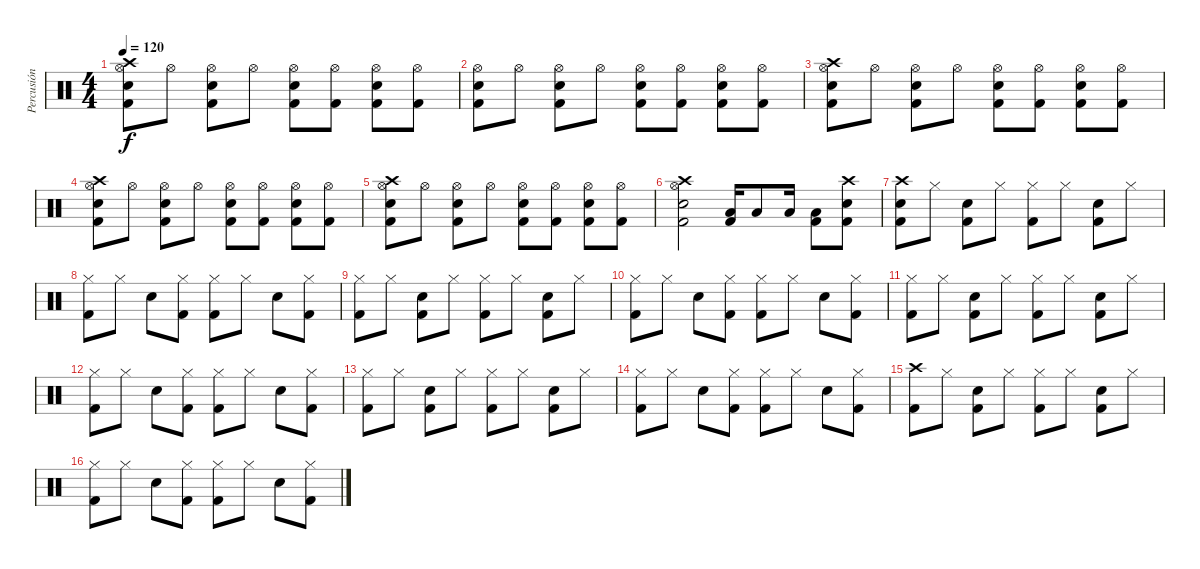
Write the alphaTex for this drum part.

\track ("Percusión" "Percusión") {instrument percussion}
\staff {score}
\articulation defaults
\ts (4 4)
\tempo 120
\clef neutral
\ks c
("Crash high (hit)" "Hi-Hat (open)" "Electric Snare (hit)" "Kick (hit) 2").8{dy f} "Hi-Hat (open)".8 ("Hi-Hat (open)" "Electric Snare (hit)" "Kick (hit) 2").8 "Hi-Hat (open)".8 ("Hi-Hat (open)" "Electric Snare (hit)" "Kick (hit) 2").8 ("Hi-Hat (open)" "Kick (hit) 2").8 ("Hi-Hat (open)" "Electric Snare (hit)" "Kick (hit) 2").8 ("Hi-Hat (open)" "Kick (hit) 2").8 |
("Hi-Hat (open)" "Electric Snare (hit)" "Kick (hit) 2").8 "Hi-Hat (open)".8 ("Hi-Hat (open)" "Electric Snare (hit)" "Kick (hit) 2").8 "Hi-Hat (open)".8 ("Hi-Hat (open)" "Electric Snare (hit)" "Kick (hit) 2").8 ("Hi-Hat (open)" "Kick (hit) 2").8 ("Hi-Hat (open)" "Electric Snare (hit)" "Kick (hit) 2").8 ("Hi-Hat (open)" "Kick (hit) 2").8 |
("Crash high (hit)" "Hi-Hat (open)" "Electric Snare (hit)" "Kick (hit) 2").8 "Hi-Hat (open)".8 ("Hi-Hat (open)" "Electric Snare (hit)" "Kick (hit) 2").8 "Hi-Hat (open)".8 ("Hi-Hat (open)" "Electric Snare (hit)" "Kick (hit) 2").8 ("Hi-Hat (open)" "Kick (hit) 2").8 ("Hi-Hat (open)" "Electric Snare (hit)" "Kick (hit) 2").8 ("Hi-Hat (open)" "Kick (hit) 2").8 |
("Crash high (hit)" "Hi-Hat (open)" "Electric Snare (hit)" "Kick (hit) 2").8 "Hi-Hat (open)".8 ("Hi-Hat (open)" "Electric Snare (hit)" "Kick (hit) 2").8 "Hi-Hat (open)".8 ("Hi-Hat (open)" "Electric Snare (hit)" "Kick (hit) 2").8 ("Hi-Hat (open)" "Kick (hit) 2").8 ("Hi-Hat (open)" "Electric Snare (hit)" "Kick (hit) 2").8 ("Hi-Hat (open)" "Kick (hit) 2").8 |
("Crash high (hit)" "Hi-Hat (open)" "Electric Snare (hit)" "Kick (hit) 2").8 "Hi-Hat (open)".8 ("Hi-Hat (open)" "Electric Snare (hit)" "Kick (hit) 2").8 "Hi-Hat (open)".8 ("Hi-Hat (open)" "Electric Snare (hit)" "Kick (hit) 2").8 ("Hi-Hat (open)" "Kick (hit) 2").8 ("Hi-Hat (open)" "Electric Snare (hit)" "Kick (hit) 2").8 ("Hi-Hat (open)" "Kick (hit) 2").8 |
("Crash high (hit)" "Hi-Hat (open)" "Electric Snare (hit)" "Kick (hit) 2").2 ("Low Floor Tom (hit)" "Kick (hit) 2").16 "Low Floor Tom (hit)".8 "Low Floor Tom (hit)".16 ("Low Floor Tom (hit)" "Kick (hit) 2").8 ("Crash high (hit)" "Electric Snare (hit)" "Kick (hit) 2").8 |
("Crash high (hit)" "Electric Snare (hit)" "Kick (hit) 2").8 "Hi-Hat (closed)".8 ("Electric Snare (hit)" "Kick (hit) 2").8 "Hi-Hat (closed)".8 ("Hi-Hat (closed)" "Kick (hit) 2").8 "Hi-Hat (closed)".8 ("Electric Snare (hit)" "Kick (hit) 2").8 "Hi-Hat (closed)".8 |
("Hi-Hat (closed)" "Kick (hit) 2").8 "Hi-Hat (closed)".8 "Electric Snare (hit)".8 ("Hi-Hat (closed)" "Kick (hit) 2").8 ("Hi-Hat (closed)" "Kick (hit) 2").8 "Hi-Hat (closed)".8 "Electric Snare (hit)".8 ("Hi-Hat (closed)" "Kick (hit) 2").8 |
("Hi-Hat (closed)" "Kick (hit) 2").8 "Hi-Hat (closed)".8 ("Electric Snare (hit)" "Kick (hit) 2").8 "Hi-Hat (closed)".8 ("Hi-Hat (closed)" "Kick (hit) 2").8 "Hi-Hat (closed)".8 ("Electric Snare (hit)" "Kick (hit) 2").8 "Hi-Hat (closed)".8 |
("Hi-Hat (closed)" "Kick (hit) 2").8 "Hi-Hat (closed)".8 "Electric Snare (hit)".8 ("Hi-Hat (closed)" "Kick (hit) 2").8 ("Hi-Hat (closed)" "Kick (hit) 2").8 "Hi-Hat (closed)".8 "Electric Snare (hit)".8 ("Hi-Hat (closed)" "Kick (hit) 2").8 |
("Hi-Hat (closed)" "Kick (hit) 2").8 "Hi-Hat (closed)".8 ("Electric Snare (hit)" "Kick (hit) 2").8 "Hi-Hat (closed)".8 ("Hi-Hat (closed)" "Kick (hit) 2").8 "Hi-Hat (closed)".8 ("Electric Snare (hit)" "Kick (hit) 2").8 "Hi-Hat (closed)".8 |
("Hi-Hat (closed)" "Kick (hit) 2").8 "Hi-Hat (closed)".8 "Electric Snare (hit)".8 ("Hi-Hat (closed)" "Kick (hit) 2").8 ("Hi-Hat (closed)" "Kick (hit) 2").8 "Hi-Hat (closed)".8 "Electric Snare (hit)".8 ("Hi-Hat (closed)" "Kick (hit) 2").8 |
("Hi-Hat (closed)" "Kick (hit) 2").8 "Hi-Hat (closed)".8 ("Electric Snare (hit)" "Kick (hit) 2").8 "Hi-Hat (closed)".8 ("Hi-Hat (closed)" "Kick (hit) 2").8 "Hi-Hat (closed)".8 ("Electric Snare (hit)" "Kick (hit) 2").8 "Hi-Hat (closed)".8 |
("Hi-Hat (closed)" "Kick (hit) 2").8 "Hi-Hat (closed)".8 "Electric Snare (hit)".8 ("Hi-Hat (closed)" "Kick (hit) 2").8 ("Hi-Hat (closed)" "Kick (hit) 2").8 "Hi-Hat (closed)".8 "Electric Snare (hit)".8 ("Hi-Hat (closed)" "Kick (hit) 2").8 |
("Crash high (hit)" "Kick (hit) 2").8 "Hi-Hat (closed)".8 ("Electric Snare (hit)" "Kick (hit) 2").8 "Hi-Hat (closed)".8 ("Hi-Hat (closed)" "Kick (hit) 2").8 "Hi-Hat (closed)".8 ("Electric Snare (hit)" "Kick (hit) 2").8 "Hi-Hat (closed)".8 |
("Hi-Hat (closed)" "Kick (hit) 2").8 "Hi-Hat (closed)".8 "Electric Snare (hit)".8 ("Hi-Hat (closed)" "Kick (hit) 2").8 ("Hi-Hat (closed)" "Kick (hit) 2").8 "Hi-Hat (closed)".8 "Electric Snare (hit)".8 ("Hi-Hat (closed)" "Kick (hit) 2").8
